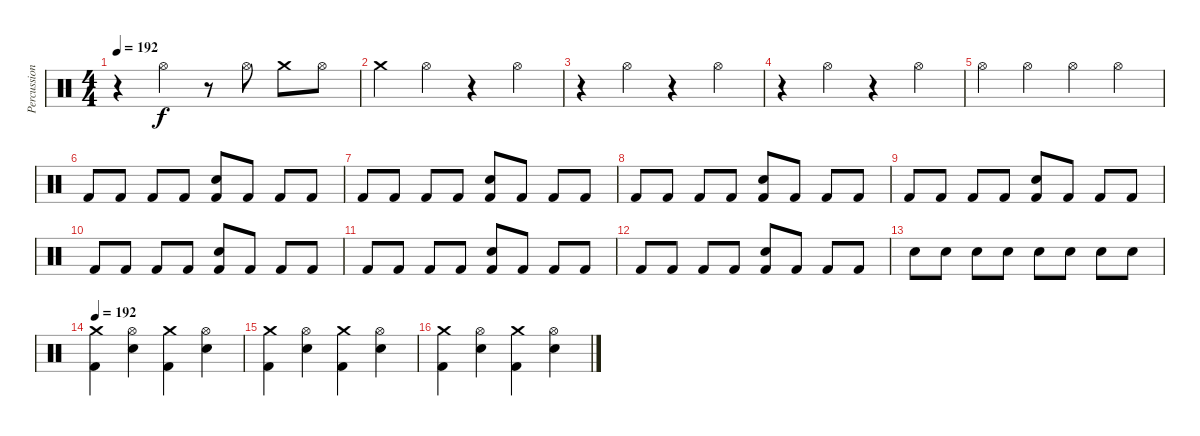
\track ("Percussion" "Percussion") {instrument percussion}
\staff {score}
\articulation defaults
\ts (4 4)
\tempo 192
\clef neutral
\ks c
r.4{dy f} "Hi-Hat (open)".4 r.8 "Hi-Hat (open)".8 "Crash medium (hit)".8 "Hi-Hat (open)".8 |
"Crash medium (hit)".4 "Hi-Hat (open)".4 r.4 "Hi-Hat (open)".4 |
r.4 "Hi-Hat (open)".4 r.4 "Hi-Hat (open)".4 |
r.4 "Hi-Hat (open)".4 r.4 "Hi-Hat (open)".4 |
"Hi-Hat (open)".4 "Hi-Hat (open)".4 "Hi-Hat (open)".4 "Hi-Hat (open)".4 |
"Kick (hit) 2".8 "Kick (hit) 2".8 "Kick (hit) 2".8 "Kick (hit) 2".8 ("Kick (hit) 2" "Electric Snare (hit)").8 "Kick (hit) 2".8 "Kick (hit) 2".8 "Kick (hit) 2".8 |
"Kick (hit) 2".8 "Kick (hit) 2".8 "Kick (hit) 2".8 "Kick (hit) 2".8 ("Kick (hit) 2" "Electric Snare (hit)").8 "Kick (hit) 2".8 "Kick (hit) 2".8 "Kick (hit) 2".8 |
"Kick (hit) 2".8 "Kick (hit) 2".8 "Kick (hit) 2".8 "Kick (hit) 2".8 ("Kick (hit) 2" "Electric Snare (hit)").8 "Kick (hit) 2".8 "Kick (hit) 2".8 "Kick (hit) 2".8 |
"Kick (hit) 2".8 "Kick (hit) 2".8 "Kick (hit) 2".8 "Kick (hit) 2".8 ("Kick (hit) 2" "Electric Snare (hit)").8 "Kick (hit) 2".8 "Kick (hit) 2".8 "Kick (hit) 2".8 |
"Kick (hit) 2".8 "Kick (hit) 2".8 "Kick (hit) 2".8 "Kick (hit) 2".8 ("Kick (hit) 2" "Electric Snare (hit)").8 "Kick (hit) 2".8 "Kick (hit) 2".8 "Kick (hit) 2".8 |
"Kick (hit) 2".8 "Kick (hit) 2".8 "Kick (hit) 2".8 "Kick (hit) 2".8 ("Kick (hit) 2" "Electric Snare (hit)").8 "Kick (hit) 2".8 "Kick (hit) 2".8 "Kick (hit) 2".8 |
"Kick (hit) 2".8 "Kick (hit) 2".8 "Kick (hit) 2".8 "Kick (hit) 2".8 ("Kick (hit) 2" "Electric Snare (hit)").8 "Kick (hit) 2".8 "Kick (hit) 2".8 "Kick (hit) 2".8 |
"Electric Snare (hit)".8 "Electric Snare (hit)".8 "Electric Snare (hit)".8 "Electric Snare (hit)".8 "Electric Snare (hit)".8 "Electric Snare (hit)".8 "Electric Snare (hit)".8 "Electric Snare (hit)".8 |
\tempo 192
("Crash medium (hit)" "Kick (hit) 2").4 ("Hi-Hat (open)" "Electric Snare (hit)").4 ("Crash medium (hit)" "Kick (hit) 2").4 ("Hi-Hat (open)" "Electric Snare (hit)").4 |
("Crash medium (hit)" "Kick (hit) 2").4 ("Hi-Hat (open)" "Electric Snare (hit)").4 ("Crash medium (hit)" "Kick (hit) 2").4 ("Hi-Hat (open)" "Electric Snare (hit)").4 |
("Crash medium (hit)" "Kick (hit) 2").4 ("Hi-Hat (open)" "Electric Snare (hit)").4 ("Crash medium (hit)" "Kick (hit) 2").4 ("Hi-Hat (open)" "Electric Snare (hit)").4
